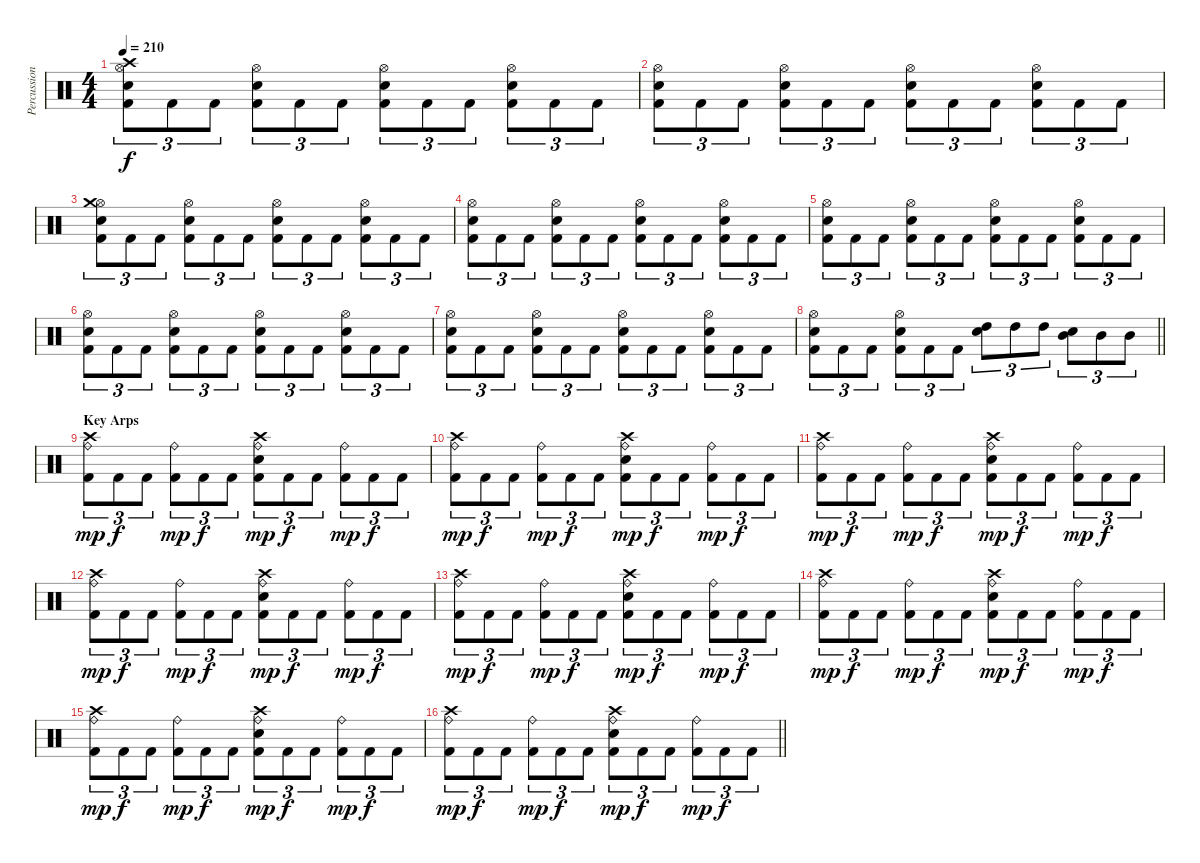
\track ("Percussion" "Percussion") {instrument percussion}
\staff {score}
\articulation defaults
\ts (4 4)
\tempo 210
\clef neutral
\ks c
("Kick (hit) 2" "Electric Snare (hit)" "Hi-Hat (open)" "Crash high (hit)").8{tu (3 2) dy f} "Kick (hit) 2".8{tu (3 2)} "Kick (hit) 2".8{tu (3 2)} ("Kick (hit) 2" "Electric Snare (hit)" "Hi-Hat (open)").8{tu (3 2)} "Kick (hit) 2".8{tu (3 2)} "Kick (hit) 2".8{tu (3 2)} ("Kick (hit) 2" "Electric Snare (hit)" "Hi-Hat (open)").8{tu (3 2)} "Kick (hit) 2".8{tu (3 2)} "Kick (hit) 2".8{tu (3 2)} ("Kick (hit) 2" "Electric Snare (hit)" "Hi-Hat (open)").8{tu (3 2)} "Kick (hit) 2".8{tu (3 2)} "Kick (hit) 2".8{tu (3 2)} |
("Kick (hit) 2" "Electric Snare (hit)" "Hi-Hat (open)").8{tu (3 2)} "Kick (hit) 2".8{tu (3 2)} "Kick (hit) 2".8{tu (3 2)} ("Kick (hit) 2" "Electric Snare (hit)" "Hi-Hat (open)").8{tu (3 2)} "Kick (hit) 2".8{tu (3 2)} "Kick (hit) 2".8{tu (3 2)} ("Kick (hit) 2" "Electric Snare (hit)" "Hi-Hat (open)").8{tu (3 2)} "Kick (hit) 2".8{tu (3 2)} "Kick (hit) 2".8{tu (3 2)} ("Kick (hit) 2" "Electric Snare (hit)" "Hi-Hat (open)").8{tu (3 2)} "Kick (hit) 2".8{tu (3 2)} "Kick (hit) 2".8{tu (3 2)} |
("Kick (hit) 2" "Electric Snare (hit)" "Hi-Hat (open)" "Crash medium (hit)").8{tu (3 2)} "Kick (hit) 2".8{tu (3 2)} "Kick (hit) 2".8{tu (3 2)} ("Kick (hit) 2" "Electric Snare (hit)" "Hi-Hat (open)").8{tu (3 2)} "Kick (hit) 2".8{tu (3 2)} "Kick (hit) 2".8{tu (3 2)} ("Kick (hit) 2" "Electric Snare (hit)" "Hi-Hat (open)").8{tu (3 2)} "Kick (hit) 2".8{tu (3 2)} "Kick (hit) 2".8{tu (3 2)} ("Kick (hit) 2" "Electric Snare (hit)" "Hi-Hat (open)").8{tu (3 2)} "Kick (hit) 2".8{tu (3 2)} "Kick (hit) 2".8{tu (3 2)} |
("Kick (hit) 2" "Electric Snare (hit)" "Hi-Hat (open)").8{tu (3 2)} "Kick (hit) 2".8{tu (3 2)} "Kick (hit) 2".8{tu (3 2)} ("Kick (hit) 2" "Electric Snare (hit)" "Hi-Hat (open)").8{tu (3 2)} "Kick (hit) 2".8{tu (3 2)} "Kick (hit) 2".8{tu (3 2)} ("Kick (hit) 2" "Electric Snare (hit)" "Hi-Hat (open)").8{tu (3 2)} "Kick (hit) 2".8{tu (3 2)} "Kick (hit) 2".8{tu (3 2)} ("Kick (hit) 2" "Electric Snare (hit)" "Hi-Hat (open)").8{tu (3 2)} "Kick (hit) 2".8{tu (3 2)} "Kick (hit) 2".8{tu (3 2)} |
("Kick (hit) 2" "Electric Snare (hit)" "Hi-Hat (open)").8{tu (3 2)} "Kick (hit) 2".8{tu (3 2)} "Kick (hit) 2".8{tu (3 2)} ("Kick (hit) 2" "Electric Snare (hit)" "Hi-Hat (open)").8{tu (3 2)} "Kick (hit) 2".8{tu (3 2)} "Kick (hit) 2".8{tu (3 2)} ("Kick (hit) 2" "Electric Snare (hit)" "Hi-Hat (open)").8{tu (3 2)} "Kick (hit) 2".8{tu (3 2)} "Kick (hit) 2".8{tu (3 2)} ("Kick (hit) 2" "Electric Snare (hit)" "Hi-Hat (open)").8{tu (3 2)} "Kick (hit) 2".8{tu (3 2)} "Kick (hit) 2".8{tu (3 2)} |
("Kick (hit) 2" "Electric Snare (hit)" "Hi-Hat (open)").8{tu (3 2)} "Kick (hit) 2".8{tu (3 2)} "Kick (hit) 2".8{tu (3 2)} ("Kick (hit) 2" "Electric Snare (hit)" "Hi-Hat (open)").8{tu (3 2)} "Kick (hit) 2".8{tu (3 2)} "Kick (hit) 2".8{tu (3 2)} ("Kick (hit) 2" "Electric Snare (hit)" "Hi-Hat (open)").8{tu (3 2)} "Kick (hit) 2".8{tu (3 2)} "Kick (hit) 2".8{tu (3 2)} ("Kick (hit) 2" "Electric Snare (hit)" "Hi-Hat (open)").8{tu (3 2)} "Kick (hit) 2".8{tu (3 2)} "Kick (hit) 2".8{tu (3 2)} |
("Kick (hit) 2" "Electric Snare (hit)" "Hi-Hat (open)").8{tu (3 2)} "Kick (hit) 2".8{tu (3 2)} "Kick (hit) 2".8{tu (3 2)} ("Kick (hit) 2" "Electric Snare (hit)" "Hi-Hat (open)").8{tu (3 2)} "Kick (hit) 2".8{tu (3 2)} "Kick (hit) 2".8{tu (3 2)} ("Kick (hit) 2" "Electric Snare (hit)" "Hi-Hat (open)").8{tu (3 2)} "Kick (hit) 2".8{tu (3 2)} "Kick (hit) 2".8{tu (3 2)} ("Kick (hit) 2" "Electric Snare (hit)" "Hi-Hat (open)").8{tu (3 2)} "Kick (hit) 2".8{tu (3 2)} "Kick (hit) 2".8{tu (3 2)} |
\barLineRight lightlight
("Kick (hit) 2" "Electric Snare (hit)" "Hi-Hat (open)").8{tu (3 2)} "Kick (hit) 2".8{tu (3 2)} "Kick (hit) 2".8{tu (3 2)} ("Kick (hit) 2" "Electric Snare (hit)" "Hi-Hat (open)").8{tu (3 2)} "Kick (hit) 2".8{tu (3 2)} "Kick (hit) 2".8{tu (3 2)} ("Electric Snare (hit)" "High Tom (hit)").8{tu (3 2)} "High Tom (hit)".8{tu (3 2)} "High Tom (hit)".8{tu (3 2)} ("Electric Snare (hit)" "Mid Tom (hit)").8{tu (3 2)} "Mid Tom (hit)".8{tu (3 2)} "Mid Tom (hit)".8{tu (3 2)} |
\section ("" "Key Arps")
("Kick (hit) 2" "Ride (bell)" "Crash high (hit)").8{tu (3 2) dy mp} "Kick (hit) 2".8{tu (3 2) dy f} "Kick (hit) 2".8{tu (3 2)} ("Kick (hit) 2" "Ride (bell)").8{tu (3 2) dy mp} "Kick (hit) 2".8{tu (3 2) dy f} "Kick (hit) 2".8{tu (3 2)} ("Kick (hit) 2" "Electric Snare (hit)" "Ride (bell)" "Crash high (hit)").8{tu (3 2) dy mp} "Kick (hit) 2".8{tu (3 2) dy f} "Kick (hit) 2".8{tu (3 2)} ("Kick (hit) 2" "Ride (bell)").8{tu (3 2) dy mp} "Kick (hit) 2".8{tu (3 2) dy f} "Kick (hit) 2".8{tu (3 2)} |
("Kick (hit) 2" "Ride (bell)" "Crash high (hit)").8{tu (3 2) dy mp} "Kick (hit) 2".8{tu (3 2) dy f} "Kick (hit) 2".8{tu (3 2)} ("Kick (hit) 2" "Ride (bell)").8{tu (3 2) dy mp} "Kick (hit) 2".8{tu (3 2) dy f} "Kick (hit) 2".8{tu (3 2)} ("Kick (hit) 2" "Electric Snare (hit)" "Ride (bell)" "Crash high (hit)").8{tu (3 2) dy mp} "Kick (hit) 2".8{tu (3 2) dy f} "Kick (hit) 2".8{tu (3 2)} ("Kick (hit) 2" "Ride (bell)").8{tu (3 2) dy mp} "Kick (hit) 2".8{tu (3 2) dy f} "Kick (hit) 2".8{tu (3 2)} |
("Kick (hit) 2" "Ride (bell)" "Crash high (hit)").8{tu (3 2) dy mp} "Kick (hit) 2".8{tu (3 2) dy f} "Kick (hit) 2".8{tu (3 2)} ("Kick (hit) 2" "Ride (bell)").8{tu (3 2) dy mp} "Kick (hit) 2".8{tu (3 2) dy f} "Kick (hit) 2".8{tu (3 2)} ("Kick (hit) 2" "Electric Snare (hit)" "Ride (bell)" "Crash high (hit)").8{tu (3 2) dy mp} "Kick (hit) 2".8{tu (3 2) dy f} "Kick (hit) 2".8{tu (3 2)} ("Kick (hit) 2" "Ride (bell)").8{tu (3 2) dy mp} "Kick (hit) 2".8{tu (3 2) dy f} "Kick (hit) 2".8{tu (3 2)} |
("Kick (hit) 2" "Ride (bell)" "Crash high (hit)").8{tu (3 2) dy mp} "Kick (hit) 2".8{tu (3 2) dy f} "Kick (hit) 2".8{tu (3 2)} ("Kick (hit) 2" "Ride (bell)").8{tu (3 2) dy mp} "Kick (hit) 2".8{tu (3 2) dy f} "Kick (hit) 2".8{tu (3 2)} ("Kick (hit) 2" "Electric Snare (hit)" "Ride (bell)" "Crash high (hit)").8{tu (3 2) dy mp} "Kick (hit) 2".8{tu (3 2) dy f} "Kick (hit) 2".8{tu (3 2)} ("Kick (hit) 2" "Ride (bell)").8{tu (3 2) dy mp} "Kick (hit) 2".8{tu (3 2) dy f} "Kick (hit) 2".8{tu (3 2)} |
("Kick (hit) 2" "Ride (bell)" "Crash high (hit)").8{tu (3 2) dy mp} "Kick (hit) 2".8{tu (3 2) dy f} "Kick (hit) 2".8{tu (3 2)} ("Kick (hit) 2" "Ride (bell)").8{tu (3 2) dy mp} "Kick (hit) 2".8{tu (3 2) dy f} "Kick (hit) 2".8{tu (3 2)} ("Kick (hit) 2" "Electric Snare (hit)" "Ride (bell)" "Crash high (hit)").8{tu (3 2) dy mp} "Kick (hit) 2".8{tu (3 2) dy f} "Kick (hit) 2".8{tu (3 2)} ("Kick (hit) 2" "Ride (bell)").8{tu (3 2) dy mp} "Kick (hit) 2".8{tu (3 2) dy f} "Kick (hit) 2".8{tu (3 2)} |
("Kick (hit) 2" "Ride (bell)" "Crash high (hit)").8{tu (3 2) dy mp} "Kick (hit) 2".8{tu (3 2) dy f} "Kick (hit) 2".8{tu (3 2)} ("Kick (hit) 2" "Ride (bell)").8{tu (3 2) dy mp} "Kick (hit) 2".8{tu (3 2) dy f} "Kick (hit) 2".8{tu (3 2)} ("Kick (hit) 2" "Electric Snare (hit)" "Ride (bell)" "Crash high (hit)").8{tu (3 2) dy mp} "Kick (hit) 2".8{tu (3 2) dy f} "Kick (hit) 2".8{tu (3 2)} ("Kick (hit) 2" "Ride (bell)").8{tu (3 2) dy mp} "Kick (hit) 2".8{tu (3 2) dy f} "Kick (hit) 2".8{tu (3 2)} |
("Kick (hit) 2" "Ride (bell)" "Crash high (hit)").8{tu (3 2) dy mp} "Kick (hit) 2".8{tu (3 2) dy f} "Kick (hit) 2".8{tu (3 2)} ("Kick (hit) 2" "Ride (bell)").8{tu (3 2) dy mp} "Kick (hit) 2".8{tu (3 2) dy f} "Kick (hit) 2".8{tu (3 2)} ("Kick (hit) 2" "Electric Snare (hit)" "Ride (bell)" "Crash high (hit)").8{tu (3 2) dy mp} "Kick (hit) 2".8{tu (3 2) dy f} "Kick (hit) 2".8{tu (3 2)} ("Kick (hit) 2" "Ride (bell)").8{tu (3 2) dy mp} "Kick (hit) 2".8{tu (3 2) dy f} "Kick (hit) 2".8{tu (3 2)} |
\barLineRight lightlight
("Kick (hit) 2" "Ride (bell)" "Crash high (hit)").8{tu (3 2) dy mp} "Kick (hit) 2".8{tu (3 2) dy f} "Kick (hit) 2".8{tu (3 2)} ("Kick (hit) 2" "Ride (bell)").8{tu (3 2) dy mp} "Kick (hit) 2".8{tu (3 2) dy f} "Kick (hit) 2".8{tu (3 2)} ("Kick (hit) 2" "Electric Snare (hit)" "Ride (bell)" "Crash high (hit)").8{tu (3 2) dy mp} "Kick (hit) 2".8{tu (3 2) dy f} "Kick (hit) 2".8{tu (3 2)} ("Kick (hit) 2" "Ride (bell)").8{tu (3 2) dy mp} "Kick (hit) 2".8{tu (3 2) dy f} "Kick (hit) 2".8{tu (3 2)}
